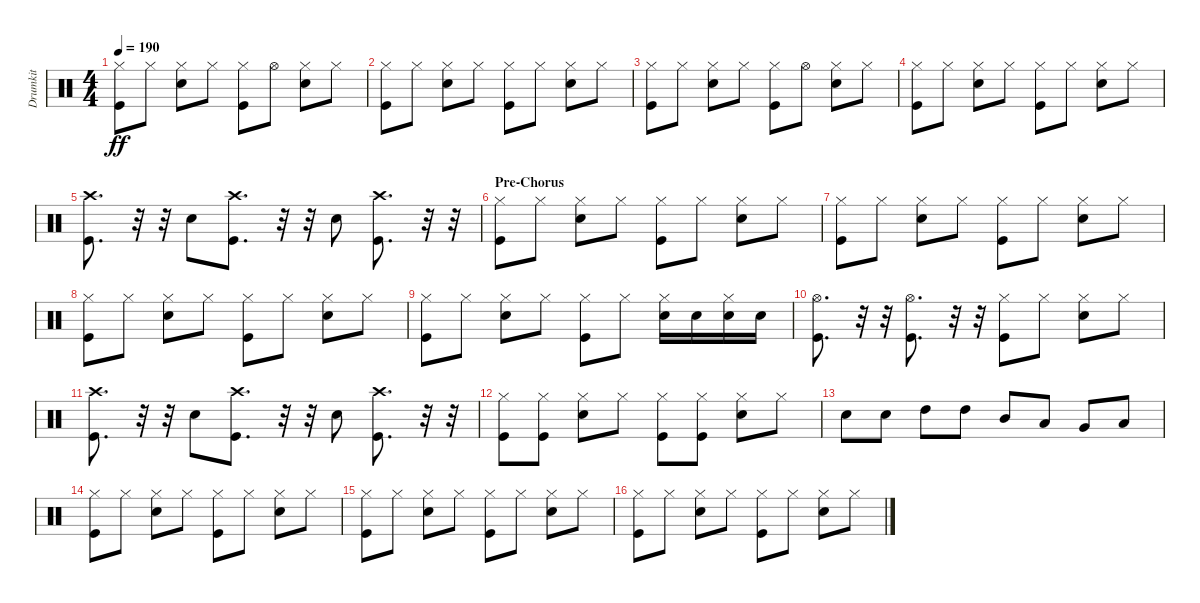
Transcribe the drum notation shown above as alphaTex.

\track ("Drumkit" "Drumkit") {instrument percussion}
\staff {score}
\articulation defaults
\ts (4 4)
\tempo 190
\clef neutral
\ks c
("Kick (hit)" "Hi-Hat (closed)").8{dy ff} "Hi-Hat (closed)".8 ("Snare (hit) 2" "Hi-Hat (closed)").8 "Hi-Hat (closed)".8 ("Kick (hit)" "Hi-Hat (closed)").8 "Hi-Hat (open)".8 ("Snare (hit) 2" "Hi-Hat (closed)").8 "Hi-Hat (closed)".8 |
("Kick (hit)" "Hi-Hat (closed)").8 "Hi-Hat (closed)".8 ("Snare (hit) 2" "Hi-Hat (closed)").8 "Hi-Hat (closed)".8 ("Kick (hit)" "Hi-Hat (closed)").8 "Hi-Hat (closed)".8 ("Snare (hit) 2" "Hi-Hat (closed)").8 "Hi-Hat (closed)".8 |
("Kick (hit)" "Hi-Hat (closed)").8 "Hi-Hat (closed)".8 ("Snare (hit) 2" "Hi-Hat (closed)").8 "Hi-Hat (closed)".8 ("Kick (hit)" "Hi-Hat (closed)").8 "Hi-Hat (open)".8 ("Snare (hit) 2" "Hi-Hat (closed)").8 "Hi-Hat (closed)".8 |
("Kick (hit)" "Hi-Hat (closed)").8 "Hi-Hat (closed)".8 ("Snare (hit) 2" "Hi-Hat (closed)").8 "Hi-Hat (closed)".8 ("Kick (hit)" "Hi-Hat (closed)").8 "Hi-Hat (closed)".8 ("Snare (hit) 2" "Hi-Hat (closed)").8 "Hi-Hat (closed)".8 |
("Kick (hit)" "Crash high (hit)").8{d} r.32 r.32 "Snare (hit) 2".8 ("Kick (hit)" "Crash high (hit)").8{d} r.32 r.32 "Snare (hit) 2".8 ("Kick (hit)" "Crash high (hit)").8{d} r.32 r.32 |
\section ("" "Pre-Chorus")
("Kick (hit)" "Hi-Hat (closed)").8 "Hi-Hat (closed)".8 ("Snare (hit) 2" "Hi-Hat (closed)").8 "Hi-Hat (closed)".8 ("Kick (hit)" "Hi-Hat (closed)").8 "Hi-Hat (closed)".8 ("Snare (hit) 2" "Hi-Hat (closed)").8 "Hi-Hat (closed)".8 |
("Kick (hit)" "Hi-Hat (closed)").8 "Hi-Hat (closed)".8 ("Snare (hit) 2" "Hi-Hat (closed)").8 "Hi-Hat (closed)".8 ("Kick (hit)" "Hi-Hat (closed)").8 "Hi-Hat (closed)".8 ("Snare (hit) 2" "Hi-Hat (closed)").8 "Hi-Hat (closed)".8 |
("Kick (hit)" "Hi-Hat (closed)").8 "Hi-Hat (closed)".8 ("Snare (hit) 2" "Hi-Hat (closed)").8 "Hi-Hat (closed)".8 ("Kick (hit)" "Hi-Hat (closed)").8 "Hi-Hat (closed)".8 ("Snare (hit) 2" "Hi-Hat (closed)").8 "Hi-Hat (closed)".8 |
("Kick (hit)" "Hi-Hat (closed)").8 "Hi-Hat (closed)".8 ("Snare (hit) 2" "Hi-Hat (closed)").8 "Hi-Hat (closed)".8 ("Kick (hit)" "Hi-Hat (closed)").8 "Hi-Hat (closed)".8 ("Snare (hit) 2" "Hi-Hat (closed)").16 "Snare (hit) 2".16 ("Snare (hit) 2" "Hi-Hat (closed)").16 "Snare (hit) 2".16 |
("Kick (hit)" "Hi-Hat (open)").8{d} r.32 r.32 ("Kick (hit)" "Hi-Hat (open)").8{d} r.32 r.32 ("Kick (hit)" "Hi-Hat (closed)").8 "Hi-Hat (closed)".8 ("Snare (hit) 2" "Hi-Hat (closed)").8 "Hi-Hat (closed)".8 |
("Kick (hit)" "Crash high (hit)").8{d} r.32 r.32 "Snare (hit) 2".8 ("Kick (hit)" "Crash high (hit)").8{d} r.32 r.32 "Snare (hit) 2".8 ("Kick (hit)" "Crash high (hit)").8{d} r.32 r.32 |
("Kick (hit)" "Hi-Hat (closed)").8 ("Kick (hit)" "Hi-Hat (closed)").8 ("Snare (hit) 2" "Hi-Hat (closed)").8 "Hi-Hat (closed)".8 ("Kick (hit)" "Hi-Hat (closed)").8 ("Kick (hit)" "Hi-Hat (closed)").8 ("Snare (hit) 2" "Hi-Hat (closed)").8 "Hi-Hat (closed)".8 |
"Snare (hit) 2".8 "Snare (hit) 2".8 "High Tom (hit)".8 "High Tom (hit)".8 "Mid Tom (hit)".8 "Low Tom (hit)".8 "Very Low Tom (hit)".8 "Low Floor Tom (hit)".8 |
("Kick (hit)" "Hi-Hat (closed)").8 "Hi-Hat (closed)".8 ("Snare (hit) 2" "Hi-Hat (closed)").8 "Hi-Hat (closed)".8 ("Kick (hit)" "Hi-Hat (closed)").8 "Hi-Hat (closed)".8 ("Snare (hit) 2" "Hi-Hat (closed)").8 "Hi-Hat (closed)".8 |
("Kick (hit)" "Hi-Hat (closed)").8 "Hi-Hat (closed)".8 ("Snare (hit) 2" "Hi-Hat (closed)").8 "Hi-Hat (closed)".8 ("Kick (hit)" "Hi-Hat (closed)").8 "Hi-Hat (closed)".8 ("Snare (hit) 2" "Hi-Hat (closed)").8 "Hi-Hat (closed)".8 |
("Kick (hit)" "Hi-Hat (closed)").8 "Hi-Hat (closed)".8 ("Snare (hit) 2" "Hi-Hat (closed)").8 "Hi-Hat (closed)".8 ("Kick (hit)" "Hi-Hat (closed)").8 "Hi-Hat (closed)".8 ("Snare (hit) 2" "Hi-Hat (closed)").8 "Hi-Hat (closed)".8
